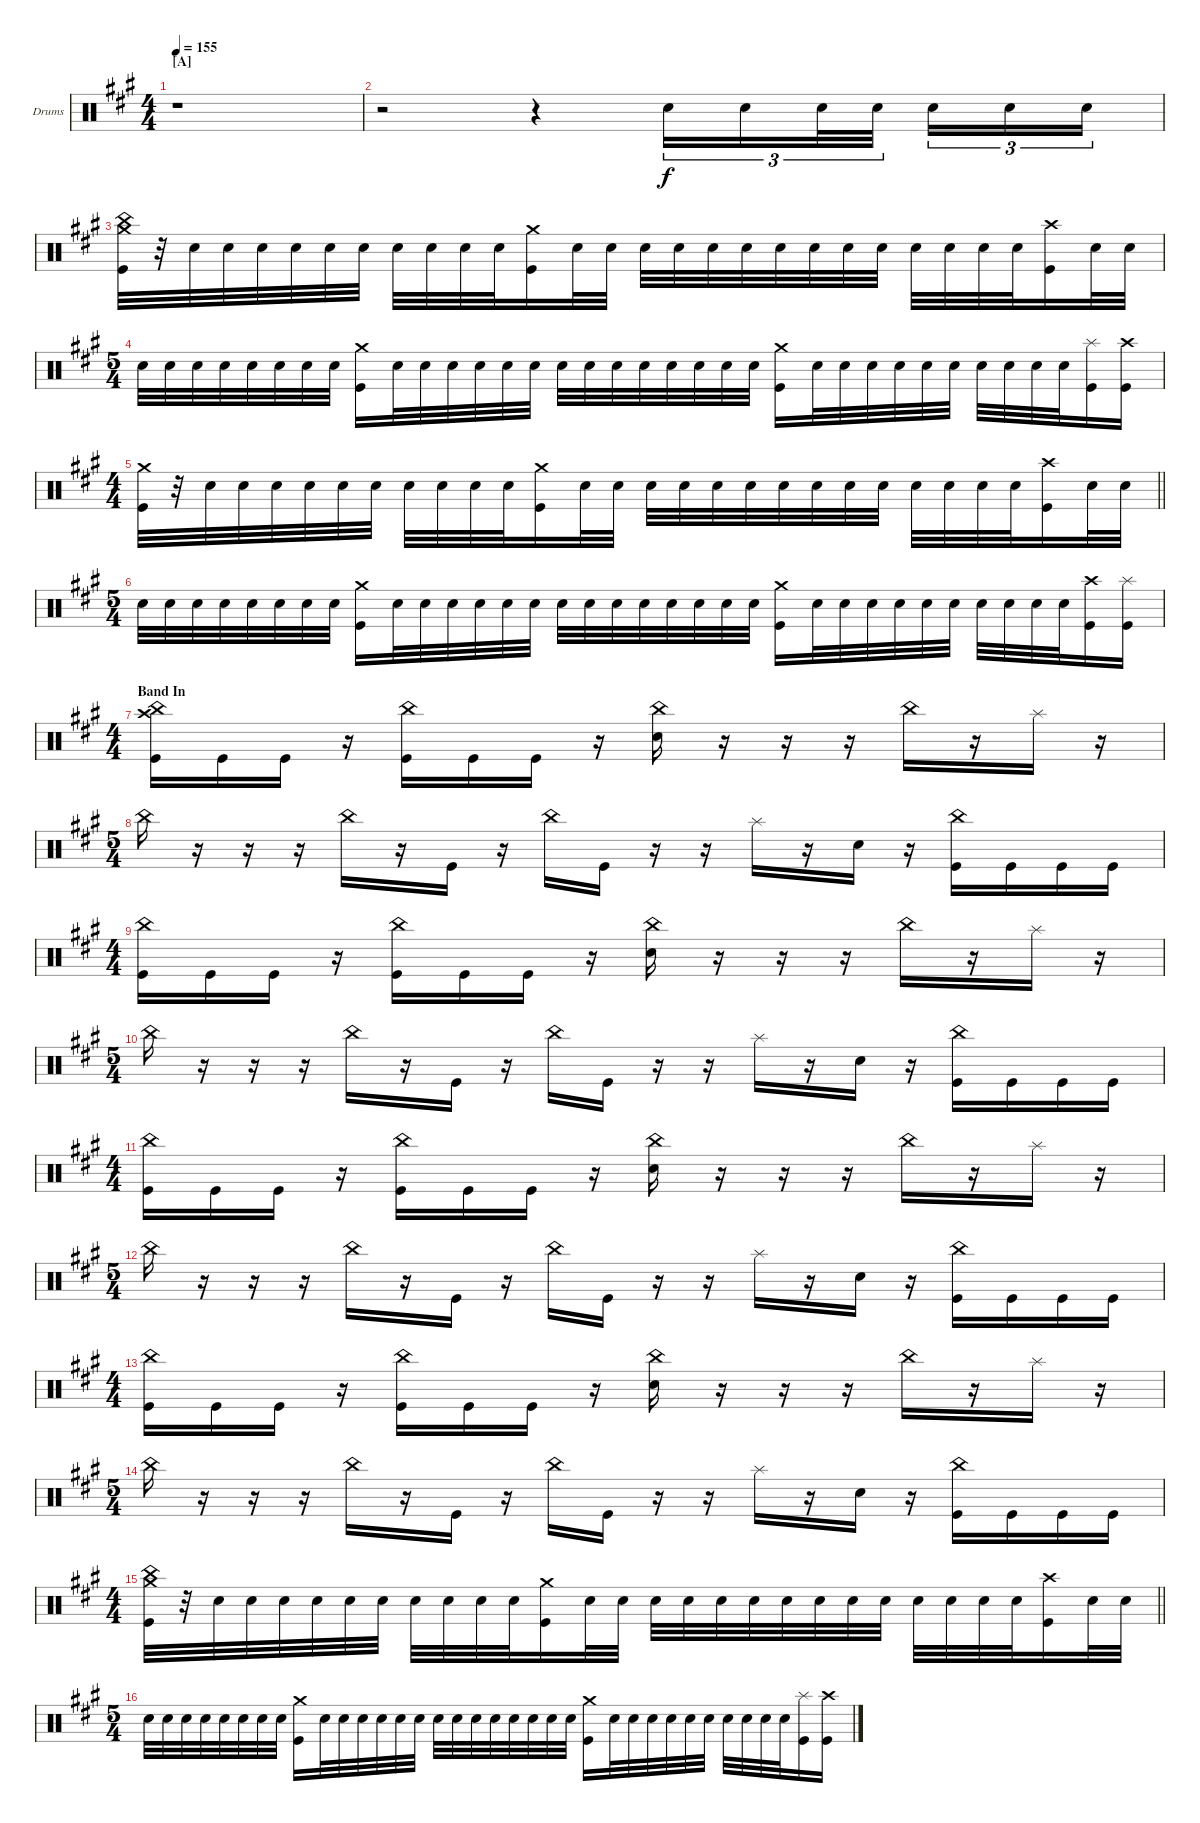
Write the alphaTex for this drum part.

\bracketExtendMode groupsimilarinstruments
\firstSystemTrackNameOrientation horizontal
\otherSystemsTrackNameOrientation horizontal
\track ("Drumkit" "Drums") {instrument percussion}
\staff {score}
\articulation defaults
\ts (4 4)
\section ("A" "")
\tempo 155
\clef neutral
\ks a
r.1{dy f} |
r.2 r.4 "Snare (hit) 2".16{tu (3 2)} "Snare (hit) 2".16{tu (3 2)} "Snare (hit) 2".32{tu (3 2)} "Snare (hit) 2".32{tu (3 2)} "Snare (hit) 2".16{tu (3 2)} "Snare (hit) 2".16{tu (3 2)} "Snare (hit) 2".16{tu (3 2)} |
("Crash medium (hit)" "China (hit)" "Kick (hit)").32 r.32 "Snare (hit) 2".32 "Snare (hit) 2".32 "Snare (hit) 2".32 "Snare (hit) 2".32 "Snare (hit) 2".32 "Snare (hit) 2".32 "Snare (hit) 2".32 "Snare (hit) 2".32 "Snare (hit) 2".32 "Snare (hit) 2".32 ("Crash medium (hit)" "Kick (hit)").16 "Snare (hit) 2".32 "Snare (hit) 2".32 "Snare (hit) 2".32 "Snare (hit) 2".32 "Snare (hit) 2".32 "Snare (hit) 2".32 "Snare (hit) 2".32 "Snare (hit) 2".32 "Snare (hit) 2".32 "Snare (hit) 2".32 "Snare (hit) 2".32 "Snare (hit) 2".32 "Snare (hit) 2".32 "Snare (hit) 2".32 ("Crash high (hit)" "Kick (hit)").16 "Snare (hit) 2".32 "Snare (hit) 2".32 |
\ts (5 4)
"Snare (hit) 2".32 "Snare (hit) 2".32 "Snare (hit) 2".32 "Snare (hit) 2".32 "Snare (hit) 2".32 "Snare (hit) 2".32 "Snare (hit) 2".32 "Snare (hit) 2".32 ("Crash medium (hit)" "Kick (hit)").16 "Snare (hit) 2".32 "Snare (hit) 2".32 "Snare (hit) 2".32 "Snare (hit) 2".32 "Snare (hit) 2".32 "Snare (hit) 2".32 "Snare (hit) 2".32 "Snare (hit) 2".32 "Snare (hit) 2".32 "Snare (hit) 2".32 "Snare (hit) 2".32 "Snare (hit) 2".32 "Snare (hit) 2".32 "Snare (hit) 2".32 ("Crash medium (hit)" "Kick (hit)").16 "Snare (hit) 2".32 "Snare (hit) 2".32 "Snare (hit) 2".32 "Snare (hit) 2".32 "Snare (hit) 2".32 "Snare (hit) 2".32 "Snare (hit) 2".32 "Snare (hit) 2".32 "Snare (hit) 2".32 "Snare (hit) 2".32 ("Splash (hit)" "Kick (hit)").16 ("Crash high (hit)" "Kick (hit)").16 |
\ts (4 4)
\barLineRight lightlight
("Crash medium (hit)" "Kick (hit)").32 r.32 "Snare (hit) 2".32 "Snare (hit) 2".32 "Snare (hit) 2".32 "Snare (hit) 2".32 "Snare (hit) 2".32 "Snare (hit) 2".32 "Snare (hit) 2".32 "Snare (hit) 2".32 "Snare (hit) 2".32 "Snare (hit) 2".32 ("Crash medium (hit)" "Kick (hit)").16 "Snare (hit) 2".32 "Snare (hit) 2".32 "Snare (hit) 2".32 "Snare (hit) 2".32 "Snare (hit) 2".32 "Snare (hit) 2".32 "Snare (hit) 2".32 "Snare (hit) 2".32 "Snare (hit) 2".32 "Snare (hit) 2".32 "Snare (hit) 2".32 "Snare (hit) 2".32 "Snare (hit) 2".32 "Snare (hit) 2".32 ("Crash high (hit)" "Kick (hit)").16 "Snare (hit) 2".32 "Snare (hit) 2".32 |
\ts (5 4)
"Snare (hit) 2".32 "Snare (hit) 2".32 "Snare (hit) 2".32 "Snare (hit) 2".32 "Snare (hit) 2".32 "Snare (hit) 2".32 "Snare (hit) 2".32 "Snare (hit) 2".32 ("Crash medium (hit)" "Kick (hit)").16 "Snare (hit) 2".32 "Snare (hit) 2".32 "Snare (hit) 2".32 "Snare (hit) 2".32 "Snare (hit) 2".32 "Snare (hit) 2".32 "Snare (hit) 2".32 "Snare (hit) 2".32 "Snare (hit) 2".32 "Snare (hit) 2".32 "Snare (hit) 2".32 "Snare (hit) 2".32 "Snare (hit) 2".32 "Snare (hit) 2".32 ("Crash medium (hit)" "Kick (hit)").16 "Snare (hit) 2".32 "Snare (hit) 2".32 "Snare (hit) 2".32 "Snare (hit) 2".32 "Snare (hit) 2".32 "Snare (hit) 2".32 "Snare (hit) 2".32 "Snare (hit) 2".32 "Snare (hit) 2".32 "Snare (hit) 2".32 ("Crash high (hit)" "Kick (hit)").16 ("Splash (hit)" "Kick (hit)").16 |
\ts (4 4)
\section ("" "Band In")
("China (hit)" "Crash high (hit)" "Kick (hit)").16 "Kick (hit)".16 "Kick (hit)".16 r.16 ("China (hit)" "Kick (hit)").16 "Kick (hit)".16 "Kick (hit)".16 r.16 ("China (hit)" "Snare (hit) 2").16 r.16 r.16 r.16 "China (hit)".16 r.16 "Splash (hit)".16 r.16 |
\ts (5 4)
\beaming (8 2 2 2 2 2)
"China (hit)".16 r.16 r.16 r.16 "China (hit)".16 r.16 "Kick (hit)".16 r.16 "China (hit)".16 "Kick (hit)".16 r.16 r.16 "Splash (hit)".16 r.16 "Snare (hit) 2".16 r.16 ("China (hit)" "Kick (hit)").16 "Kick (hit)".16 "Kick (hit)".16 "Kick (hit)".16 |
\ts (4 4)
\beaming (8 2 2 2 2 2)
("China (hit)" "Kick (hit)").16 "Kick (hit)".16 "Kick (hit)".16 r.16 ("China (hit)" "Kick (hit)").16 "Kick (hit)".16 "Kick (hit)".16 r.16 ("China (hit)" "Snare (hit) 2").16 r.16 r.16 r.16 "China (hit)".16 r.16 "Splash (hit)".16 r.16 |
\ts (5 4)
\beaming (8 2 2 2 2 2)
"China (hit)".16 r.16 r.16 r.16 "China (hit)".16 r.16 "Kick (hit)".16 r.16 "China (hit)".16 "Kick (hit)".16 r.16 r.16 "Splash (hit)".16 r.16 "Snare (hit) 2".16 r.16 ("China (hit)" "Kick (hit)").16 "Kick (hit)".16 "Kick (hit)".16 "Kick (hit)".16 |
\ts (4 4)
\beaming (8 2 2 2 2 2)
("China (hit)" "Kick (hit)").16 "Kick (hit)".16 "Kick (hit)".16 r.16 ("China (hit)" "Kick (hit)").16 "Kick (hit)".16 "Kick (hit)".16 r.16 ("China (hit)" "Snare (hit) 2").16 r.16 r.16 r.16 "China (hit)".16 r.16 "Splash (hit)".16 r.16 |
\ts (5 4)
\beaming (8 2 2 2 2 2)
"China (hit)".16 r.16 r.16 r.16 "China (hit)".16 r.16 "Kick (hit)".16 r.16 "China (hit)".16 "Kick (hit)".16 r.16 r.16 "Splash (hit)".16 r.16 "Snare (hit) 2".16 r.16 ("China (hit)" "Kick (hit)").16 "Kick (hit)".16 "Kick (hit)".16 "Kick (hit)".16 |
\ts (4 4)
\beaming (8 2 2 2 2 2)
("China (hit)" "Kick (hit)").16 "Kick (hit)".16 "Kick (hit)".16 r.16 ("China (hit)" "Kick (hit)").16 "Kick (hit)".16 "Kick (hit)".16 r.16 ("China (hit)" "Snare (hit) 2").16 r.16 r.16 r.16 "China (hit)".16 r.16 "Splash (hit)".16 r.16 |
\ts (5 4)
\beaming (8 2 2 2 2 2)
"China (hit)".16 r.16 r.16 r.16 "China (hit)".16 r.16 "Kick (hit)".16 r.16 "China (hit)".16 "Kick (hit)".16 r.16 r.16 "Splash (hit)".16 r.16 "Snare (hit) 2".16 r.16 ("China (hit)" "Kick (hit)").16 "Kick (hit)".16 "Kick (hit)".16 "Kick (hit)".16 |
\ts (4 4)
\beaming (8 2 2 2 2 2)
\barLineRight lightlight
("Crash medium (hit)" "China (hit)" "Kick (hit)").32 r.32 "Snare (hit) 2".32 "Snare (hit) 2".32 "Snare (hit) 2".32 "Snare (hit) 2".32 "Snare (hit) 2".32 "Snare (hit) 2".32 "Snare (hit) 2".32 "Snare (hit) 2".32 "Snare (hit) 2".32 "Snare (hit) 2".32 ("Crash medium (hit)" "Kick (hit)").16 "Snare (hit) 2".32 "Snare (hit) 2".32 "Snare (hit) 2".32 "Snare (hit) 2".32 "Snare (hit) 2".32 "Snare (hit) 2".32 "Snare (hit) 2".32 "Snare (hit) 2".32 "Snare (hit) 2".32 "Snare (hit) 2".32 "Snare (hit) 2".32 "Snare (hit) 2".32 "Snare (hit) 2".32 "Snare (hit) 2".32 ("Crash high (hit)" "Kick (hit)").16 "Snare (hit) 2".32 "Snare (hit) 2".32 |
\ts (5 4)
\beaming (8 2 2 2 2 2)
"Snare (hit) 2".32 "Snare (hit) 2".32 "Snare (hit) 2".32 "Snare (hit) 2".32 "Snare (hit) 2".32 "Snare (hit) 2".32 "Snare (hit) 2".32 "Snare (hit) 2".32 ("Crash medium (hit)" "Kick (hit)").16 "Snare (hit) 2".32 "Snare (hit) 2".32 "Snare (hit) 2".32 "Snare (hit) 2".32 "Snare (hit) 2".32 "Snare (hit) 2".32 "Snare (hit) 2".32 "Snare (hit) 2".32 "Snare (hit) 2".32 "Snare (hit) 2".32 "Snare (hit) 2".32 "Snare (hit) 2".32 "Snare (hit) 2".32 "Snare (hit) 2".32 ("Crash medium (hit)" "Kick (hit)").16 "Snare (hit) 2".32 "Snare (hit) 2".32 "Snare (hit) 2".32 "Snare (hit) 2".32 "Snare (hit) 2".32 "Snare (hit) 2".32 "Snare (hit) 2".32 "Snare (hit) 2".32 "Snare (hit) 2".32 "Snare (hit) 2".32 ("Splash (hit)" "Kick (hit)").16 ("Crash high (hit)" "Kick (hit)").16
